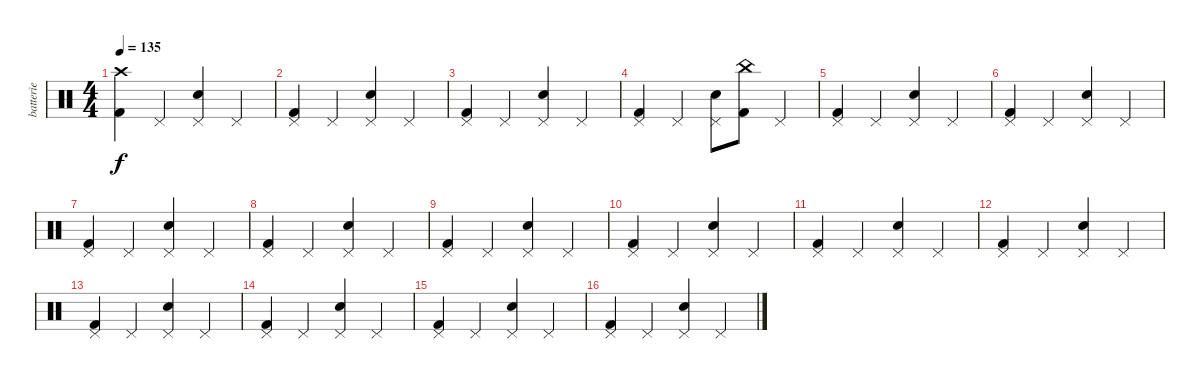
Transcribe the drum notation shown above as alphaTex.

\track ("batterie" "batterie") {instrument percussion}
\staff {score}
\articulation defaults
\ts (4 4)
\tempo 135
\clef neutral
\ks c
("Crash high (hit)" "Kick (hit) 2").4{dy f} "Pedal Hi-Hat (hit)".4 ("Snare (hit) 2" "Pedal Hi-Hat (hit)").4 "Pedal Hi-Hat (hit)".4 |
("Kick (hit) 2" "Pedal Hi-Hat (hit)").4 "Pedal Hi-Hat (hit)".4 ("Snare (hit) 2" "Pedal Hi-Hat (hit)").4 "Pedal Hi-Hat (hit)".4 |
("Kick (hit) 2" "Pedal Hi-Hat (hit)").4 "Pedal Hi-Hat (hit)".4 ("Snare (hit) 2" "Pedal Hi-Hat (hit)").4 "Pedal Hi-Hat (hit)".4 |
("Kick (hit) 2" "Pedal Hi-Hat (hit)").4 "Pedal Hi-Hat (hit)".4 ("Snare (hit) 2" "Pedal Hi-Hat (hit)").8 ("China (hit)" "Kick (hit) 2").8 "Pedal Hi-Hat (hit)".4 |
("Kick (hit) 2" "Pedal Hi-Hat (hit)").4 "Pedal Hi-Hat (hit)".4 ("Snare (hit) 2" "Pedal Hi-Hat (hit)").4 "Pedal Hi-Hat (hit)".4 |
("Kick (hit) 2" "Pedal Hi-Hat (hit)").4 "Pedal Hi-Hat (hit)".4 ("Snare (hit) 2" "Pedal Hi-Hat (hit)").4 "Pedal Hi-Hat (hit)".4 |
("Kick (hit) 2" "Pedal Hi-Hat (hit)").4 "Pedal Hi-Hat (hit)".4 ("Snare (hit) 2" "Pedal Hi-Hat (hit)").4 "Pedal Hi-Hat (hit)".4 |
("Kick (hit) 2" "Pedal Hi-Hat (hit)").4 "Pedal Hi-Hat (hit)".4 ("Snare (hit) 2" "Pedal Hi-Hat (hit)").4 "Pedal Hi-Hat (hit)".4 |
("Kick (hit) 2" "Pedal Hi-Hat (hit)").4 "Pedal Hi-Hat (hit)".4 ("Snare (hit) 2" "Pedal Hi-Hat (hit)").4 "Pedal Hi-Hat (hit)".4 |
("Kick (hit) 2" "Pedal Hi-Hat (hit)").4 "Pedal Hi-Hat (hit)".4 ("Snare (hit) 2" "Pedal Hi-Hat (hit)").4 "Pedal Hi-Hat (hit)".4 |
("Kick (hit) 2" "Pedal Hi-Hat (hit)").4 "Pedal Hi-Hat (hit)".4 ("Snare (hit) 2" "Pedal Hi-Hat (hit)").4 "Pedal Hi-Hat (hit)".4 |
("Kick (hit) 2" "Pedal Hi-Hat (hit)").4 "Pedal Hi-Hat (hit)".4 ("Snare (hit) 2" "Pedal Hi-Hat (hit)").4 "Pedal Hi-Hat (hit)".4 |
("Kick (hit) 2" "Pedal Hi-Hat (hit)").4 "Pedal Hi-Hat (hit)".4 ("Snare (hit) 2" "Pedal Hi-Hat (hit)").4 "Pedal Hi-Hat (hit)".4 |
("Kick (hit) 2" "Pedal Hi-Hat (hit)").4 "Pedal Hi-Hat (hit)".4 ("Snare (hit) 2" "Pedal Hi-Hat (hit)").4 "Pedal Hi-Hat (hit)".4 |
("Kick (hit) 2" "Pedal Hi-Hat (hit)").4 "Pedal Hi-Hat (hit)".4 ("Snare (hit) 2" "Pedal Hi-Hat (hit)").4 "Pedal Hi-Hat (hit)".4 |
("Kick (hit) 2" "Pedal Hi-Hat (hit)").4 "Pedal Hi-Hat (hit)".4 ("Snare (hit) 2" "Pedal Hi-Hat (hit)").4 "Pedal Hi-Hat (hit)".4
